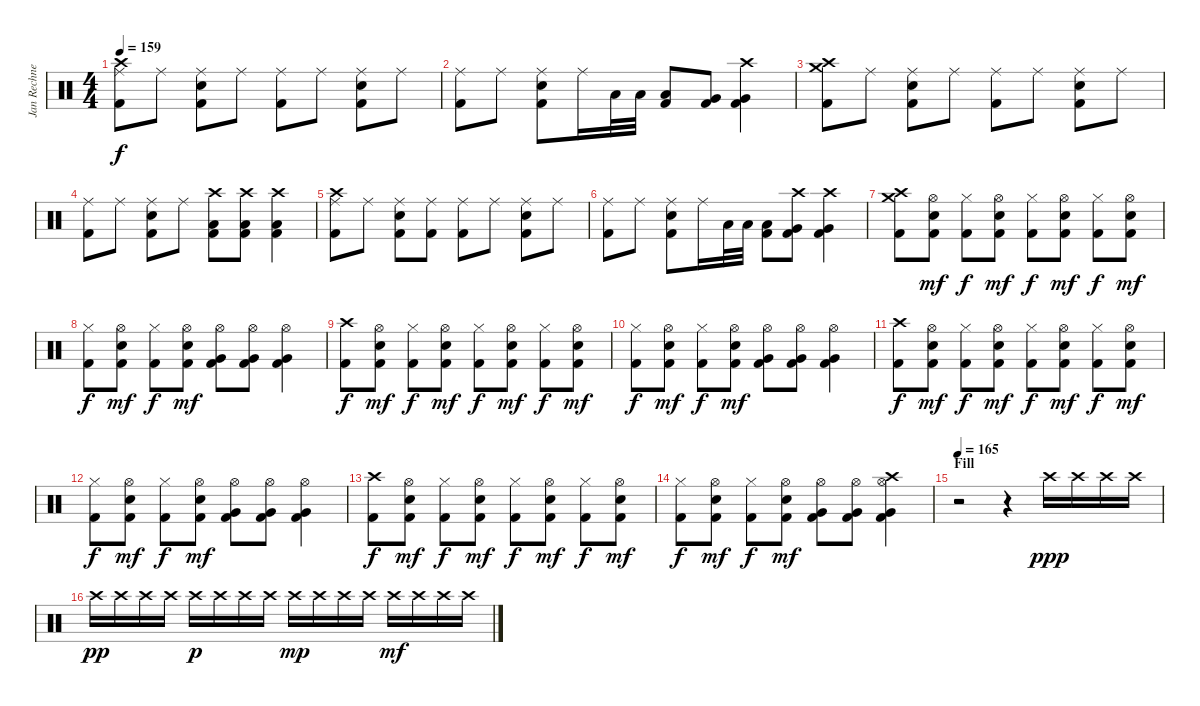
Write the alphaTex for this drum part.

\track ("Jan Rechnerger" "Jan Rechne") {instrument percussion}
\staff {score}
\articulation defaults
\ts (4 4)
\tempo 159
\clef neutral
\ks c
("Crash high (hit)" "Ride (middle)" "Kick (hit) 2").8{dy f} "Ride (middle)".8 ("Ride (middle)" "Snare (hit) 2" "Kick (hit) 2").8 "Ride (middle)".8 ("Ride (middle)" "Kick (hit) 2").8 "Ride (middle)".8 ("Ride (middle)" "Snare (hit) 2" "Kick (hit) 2").8 "Ride (middle)".8 |
("Ride (middle)" "Kick (hit) 2").8 "Ride (middle)".8 ("Ride (middle)" "Snare (hit) 2" "Kick (hit) 2").8 "Ride (middle)".16 "Low Tom (hit)".32 "Low Tom (hit)".32 ("Low Tom (hit)" "Kick (hit) 2").8 ("Very Low Tom (hit)" "Kick (hit) 2").8 ("Crash high (hit)" "Very Low Tom (hit)" "Kick (hit) 2").4 |
("Crash high (hit)" "Crash medium (hit)" "Kick (hit) 2").8 "Ride (middle)".8 ("Ride (middle)" "Snare (hit) 2" "Kick (hit) 2").8 "Ride (middle)".8 ("Ride (middle)" "Kick (hit) 2").8 "Ride (middle)".8 ("Ride (middle)" "Snare (hit) 2" "Kick (hit) 2").8 "Ride (middle)".8 |
("Ride (middle)" "Kick (hit) 2").8 "Ride (middle)".8 ("Ride (middle)" "Snare (hit) 2" "Kick (hit) 2").8 "Ride (middle)".8 ("Crash high (hit)" "Low Tom (hit)" "Kick (hit) 2").8 ("Crash high (hit)" "Low Tom (hit)" "Kick (hit) 2").8 ("Crash high (hit)" "Low Tom (hit)" "Kick (hit) 2").4 |
("Crash high (hit)" "Ride (middle)" "Kick (hit) 2").8 "Ride (middle)".8 ("Ride (middle)" "Snare (hit) 2" "Kick (hit) 2").8 ("Ride (middle)" "Kick (hit) 2").8 ("Ride (middle)" "Kick (hit) 2").8 "Ride (middle)".8 ("Ride (middle)" "Snare (hit) 2" "Kick (hit) 2").8 "Ride (middle)".8 |
("Ride (middle)" "Kick (hit) 2").8 "Ride (middle)".8 ("Ride (middle)" "Snare (hit) 2" "Kick (hit) 2").8 "Ride (middle)".16 "Low Tom (hit)".32 "Low Tom (hit)".32 ("Low Tom (hit)" "Kick (hit) 2").8 ("Crash high (hit)" "Very Low Tom (hit)" "Kick (hit) 2").8 ("Crash high (hit)" "Very Low Tom (hit)" "Kick (hit) 2").4 |
("Crash high (hit)" "Crash medium (hit)" "Kick (hit) 2").8 ("Hi-Hat (open)" "Snare (hit) 2" "Kick (hit) 2").8{dy mf} ("Hi-Hat (closed)" "Kick (hit) 2").8{dy f} ("Hi-Hat (open)" "Snare (hit) 2" "Kick (hit) 2").8{dy mf} ("Hi-Hat (closed)" "Kick (hit) 2").8{dy f} ("Hi-Hat (open)" "Snare (hit) 2" "Kick (hit) 2").8{dy mf} ("Hi-Hat (closed)" "Kick (hit) 2").8{dy f} ("Hi-Hat (open)" "Snare (hit) 2" "Kick (hit) 2").8{dy mf} |
("Hi-Hat (closed)" "Kick (hit) 2").8{dy f} ("Hi-Hat (open)" "Snare (hit) 2" "Kick (hit) 2").8{dy mf} ("Hi-Hat (closed)" "Kick (hit) 2").8{dy f} ("Hi-Hat (open)" "Snare (hit) 2" "Kick (hit) 2").8{dy mf} ("Hi-Hat (open)" "Very Low Tom (hit)" "Kick (hit) 2").8 ("Hi-Hat (open)" "Very Low Tom (hit)" "Kick (hit) 2").8 ("Hi-Hat (open)" "Very Low Tom (hit)" "Kick (hit) 2").4 |
("Crash high (hit)" "Kick (hit) 2").8{dy f} ("Hi-Hat (open)" "Snare (hit) 2" "Kick (hit) 2").8{dy mf} ("Hi-Hat (closed)" "Kick (hit) 2").8{dy f} ("Hi-Hat (open)" "Snare (hit) 2" "Kick (hit) 2").8{dy mf} ("Hi-Hat (closed)" "Kick (hit) 2").8{dy f} ("Hi-Hat (open)" "Snare (hit) 2" "Kick (hit) 2").8{dy mf} ("Hi-Hat (closed)" "Kick (hit) 2").8{dy f} ("Hi-Hat (open)" "Snare (hit) 2" "Kick (hit) 2").8{dy mf} |
("Hi-Hat (closed)" "Kick (hit) 2").8{dy f} ("Hi-Hat (open)" "Snare (hit) 2" "Kick (hit) 2").8{dy mf} ("Hi-Hat (closed)" "Kick (hit) 2").8{dy f} ("Hi-Hat (open)" "Snare (hit) 2" "Kick (hit) 2").8{dy mf} ("Hi-Hat (open)" "Very Low Tom (hit)" "Kick (hit) 2").8 ("Hi-Hat (open)" "Very Low Tom (hit)" "Kick (hit) 2").8 ("Hi-Hat (open)" "Very Low Tom (hit)" "Kick (hit) 2").4 |
("Crash high (hit)" "Kick (hit) 2").8{dy f} ("Hi-Hat (open)" "Snare (hit) 2" "Kick (hit) 2").8{dy mf} ("Hi-Hat (closed)" "Kick (hit) 2").8{dy f} ("Hi-Hat (open)" "Snare (hit) 2" "Kick (hit) 2").8{dy mf} ("Hi-Hat (closed)" "Kick (hit) 2").8{dy f} ("Hi-Hat (open)" "Snare (hit) 2" "Kick (hit) 2").8{dy mf} ("Hi-Hat (closed)" "Kick (hit) 2").8{dy f} ("Hi-Hat (open)" "Snare (hit) 2" "Kick (hit) 2").8{dy mf} |
("Hi-Hat (closed)" "Kick (hit) 2").8{dy f} ("Hi-Hat (open)" "Snare (hit) 2" "Kick (hit) 2").8{dy mf} ("Hi-Hat (closed)" "Kick (hit) 2").8{dy f} ("Hi-Hat (open)" "Snare (hit) 2" "Kick (hit) 2").8{dy mf} ("Hi-Hat (open)" "Very Low Tom (hit)" "Kick (hit) 2").8 ("Hi-Hat (open)" "Very Low Tom (hit)" "Kick (hit) 2").8 ("Hi-Hat (open)" "Very Low Tom (hit)" "Kick (hit) 2").4 |
("Crash high (hit)" "Kick (hit) 2").8{dy f} ("Hi-Hat (open)" "Snare (hit) 2" "Kick (hit) 2").8{dy mf} ("Hi-Hat (closed)" "Kick (hit) 2").8{dy f} ("Hi-Hat (open)" "Snare (hit) 2" "Kick (hit) 2").8{dy mf} ("Hi-Hat (closed)" "Kick (hit) 2").8{dy f} ("Hi-Hat (open)" "Snare (hit) 2" "Kick (hit) 2").8{dy mf} ("Hi-Hat (closed)" "Kick (hit) 2").8{dy f} ("Hi-Hat (open)" "Snare (hit) 2" "Kick (hit) 2").8{dy mf} |
("Hi-Hat (closed)" "Kick (hit) 2").8{dy f} ("Hi-Hat (open)" "Snare (hit) 2" "Kick (hit) 2").8{dy mf} ("Hi-Hat (closed)" "Kick (hit) 2").8{dy f} ("Hi-Hat (open)" "Snare (hit) 2" "Kick (hit) 2").8{dy mf} ("Hi-Hat (open)" "Very Low Tom (hit)" "Kick (hit) 2").8 ("Hi-Hat (open)" "Very Low Tom (hit)" "Kick (hit) 2").8 ("Crash high (hit)" "Hi-Hat (open)" "Very Low Tom (hit)" "Kick (hit) 2").4 |
\section ("" "Fill")
\tempo 165
r.2 r.4 "Crash high (hit)".16{dy ppp} "Crash high (hit)".16 "Crash high (hit)".16 "Crash high (hit)".16 |
"Crash high (hit)".16{dy pp} "Crash high (hit)".16 "Crash high (hit)".16 "Crash high (hit)".16 "Crash high (hit)".16{dy p} "Crash high (hit)".16 "Crash high (hit)".16 "Crash high (hit)".16 "Crash high (hit)".16{dy mp} "Crash high (hit)".16 "Crash high (hit)".16 "Crash high (hit)".16 "Crash high (hit)".16{dy mf} "Crash high (hit)".16 "Crash high (hit)".16 "Crash high (hit)".16
